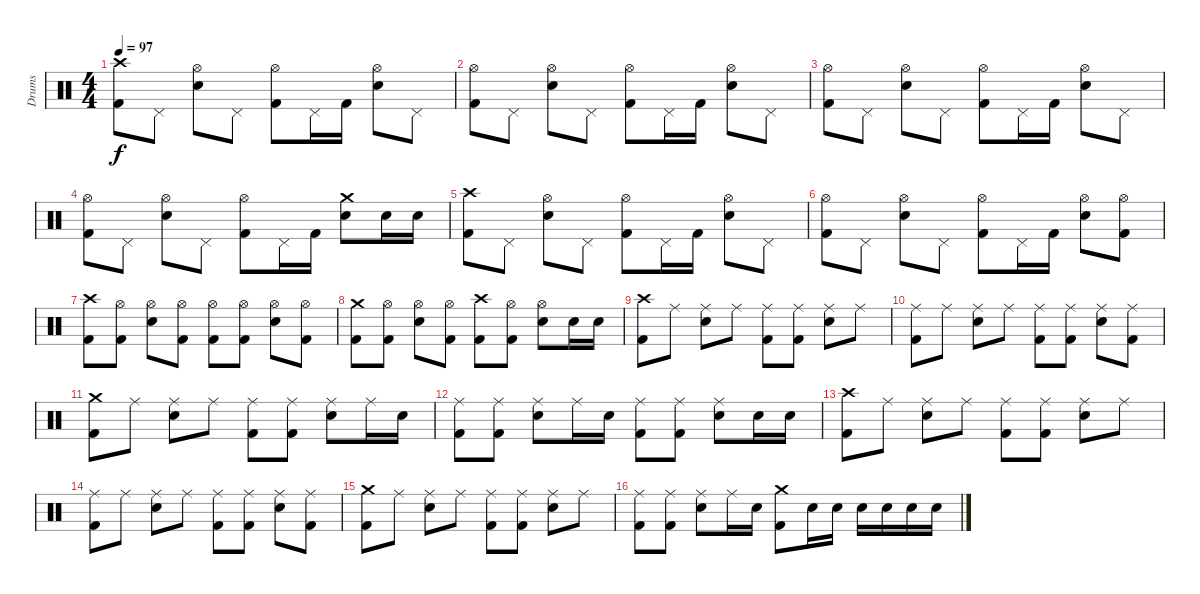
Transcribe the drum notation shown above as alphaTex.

\track ("Drums" "Drums") {instrument percussion}
\staff {score}
\articulation defaults
\ts (4 4)
\tempo 97
\clef neutral
\ks c
("Crash high (hit)" "Kick (hit) 2").8{dy f} "Pedal Hi-Hat (hit)".8 ("Hi-Hat (open)" "Snare (hit) 2").8 "Pedal Hi-Hat (hit)".8 ("Hi-Hat (open)" "Kick (hit) 2").8 "Pedal Hi-Hat (hit)".16 "Kick (hit) 2".16 ("Hi-Hat (open)" "Snare (hit) 2").8 "Pedal Hi-Hat (hit)".8 |
("Hi-Hat (open)" "Kick (hit) 2").8 "Pedal Hi-Hat (hit)".8 ("Hi-Hat (open)" "Snare (hit) 2").8 "Pedal Hi-Hat (hit)".8 ("Hi-Hat (open)" "Kick (hit) 2").8 "Pedal Hi-Hat (hit)".16 "Kick (hit) 2".16 ("Hi-Hat (open)" "Snare (hit) 2").8 "Pedal Hi-Hat (hit)".8 |
("Hi-Hat (open)" "Kick (hit) 2").8 "Pedal Hi-Hat (hit)".8 ("Hi-Hat (open)" "Snare (hit) 2").8 "Pedal Hi-Hat (hit)".8 ("Hi-Hat (open)" "Kick (hit) 2").8 "Pedal Hi-Hat (hit)".16 "Kick (hit) 2".16 ("Hi-Hat (open)" "Snare (hit) 2").8 "Pedal Hi-Hat (hit)".8 |
("Hi-Hat (open)" "Kick (hit) 2").8 "Pedal Hi-Hat (hit)".8 ("Hi-Hat (open)" "Snare (hit) 2").8 "Pedal Hi-Hat (hit)".8 ("Hi-Hat (open)" "Kick (hit) 2").8 "Pedal Hi-Hat (hit)".16 "Kick (hit) 2".16 ("Crash medium (hit)" "Snare (hit) 2").8 "Snare (hit) 2".16 "Snare (hit) 2".16 |
("Crash high (hit)" "Kick (hit) 2").8 "Pedal Hi-Hat (hit)".8 ("Hi-Hat (open)" "Snare (hit) 2").8 "Pedal Hi-Hat (hit)".8 ("Hi-Hat (open)" "Kick (hit) 2").8 "Pedal Hi-Hat (hit)".16 "Kick (hit) 2".16 ("Hi-Hat (open)" "Snare (hit) 2").8 "Pedal Hi-Hat (hit)".8 |
("Hi-Hat (open)" "Kick (hit) 2").8 "Pedal Hi-Hat (hit)".8 ("Hi-Hat (open)" "Snare (hit) 2").8 "Pedal Hi-Hat (hit)".8 ("Hi-Hat (open)" "Kick (hit) 2").8 "Pedal Hi-Hat (hit)".16 "Kick (hit) 2".16 ("Hi-Hat (open)" "Snare (hit) 2").8 ("Hi-Hat (open)" "Kick (hit) 2").8 |
("Crash high (hit)" "Kick (hit) 2").8 ("Hi-Hat (open)" "Kick (hit) 2").8 ("Hi-Hat (open)" "Snare (hit) 2").8 ("Hi-Hat (open)" "Kick (hit) 2").8 ("Hi-Hat (open)" "Kick (hit) 2").8 ("Hi-Hat (open)" "Kick (hit) 2").8 ("Hi-Hat (open)" "Snare (hit) 2").8 ("Hi-Hat (open)" "Kick (hit) 2").8 |
("Crash medium (hit)" "Kick (hit) 2").8 ("Hi-Hat (open)" "Kick (hit) 2").8 ("Hi-Hat (open)" "Snare (hit) 2").8 ("Hi-Hat (open)" "Kick (hit) 2").8 ("Crash high (hit)" "Kick (hit) 2").8 ("Hi-Hat (open)" "Kick (hit) 2").8 ("Hi-Hat (open)" "Snare (hit) 2").8 "Snare (hit) 2".16 "Snare (hit) 2".16 |
("Crash high (hit)" "Kick (hit) 2").8 "Ride (middle)".8 ("Ride (middle)" "Snare (hit) 2").8 "Ride (middle)".8 ("Ride (middle)" "Kick (hit) 2").8 ("Ride (middle)" "Kick (hit) 2").8 ("Ride (middle)" "Snare (hit) 2").8 "Ride (middle)".8 |
("Ride (middle)" "Kick (hit) 2").8 "Ride (middle)".8 ("Ride (middle)" "Snare (hit) 2").8 "Ride (middle)".8 ("Ride (middle)" "Kick (hit) 2").8 ("Ride (middle)" "Kick (hit) 2").8 ("Ride (middle)" "Snare (hit) 2").8 ("Ride (middle)" "Kick (hit) 2").8 |
("Crash medium (hit)" "Kick (hit) 2").8 "Ride (middle)".8 ("Ride (middle)" "Snare (hit) 2").8 "Ride (middle)".8 ("Ride (middle)" "Kick (hit) 2").8 ("Ride (middle)" "Kick (hit) 2").8 ("Ride (middle)" "Snare (hit) 2").8 "Ride (middle)".16 "Snare (hit) 2".16 |
("Ride (middle)" "Kick (hit) 2").8 ("Ride (middle)" "Kick (hit) 2").8 ("Ride (middle)" "Snare (hit) 2").8 "Ride (middle)".16 "Snare (hit) 2".16 ("Ride (middle)" "Kick (hit) 2").8 ("Ride (middle)" "Kick (hit) 2").8 ("Ride (middle)" "Snare (hit) 2").8 "Snare (hit) 2".16 "Snare (hit) 2".16 |
("Crash high (hit)" "Kick (hit) 2").8 "Ride (middle)".8 ("Ride (middle)" "Snare (hit) 2").8 "Ride (middle)".8 ("Ride (middle)" "Kick (hit) 2").8 ("Ride (middle)" "Kick (hit) 2").8 ("Ride (middle)" "Snare (hit) 2").8 "Ride (middle)".8 |
("Ride (middle)" "Kick (hit) 2").8 "Ride (middle)".8 ("Ride (middle)" "Snare (hit) 2").8 "Ride (middle)".8 ("Ride (middle)" "Kick (hit) 2").8 ("Ride (middle)" "Kick (hit) 2").8 ("Ride (middle)" "Snare (hit) 2").8 ("Ride (middle)" "Kick (hit) 2").8 |
("Crash medium (hit)" "Kick (hit) 2").8 "Ride (middle)".8 ("Ride (middle)" "Snare (hit) 2").8 "Ride (middle)".8 ("Ride (middle)" "Kick (hit) 2").8 ("Ride (middle)" "Kick (hit) 2").8 ("Ride (middle)" "Snare (hit) 2").8 "Ride (middle)".8 |
("Ride (middle)" "Kick (hit) 2").8 ("Ride (middle)" "Kick (hit) 2").8 ("Ride (middle)" "Snare (hit) 2").8 "Ride (middle)".16 "Snare (hit) 2".16 ("Crash medium (hit)" "Kick (hit) 2").8 "Snare (hit) 2".16 "Snare (hit) 2".16 "Snare (hit) 2".16 "Snare (hit) 2".16 "Snare (hit) 2".16 "Snare (hit) 2".16
